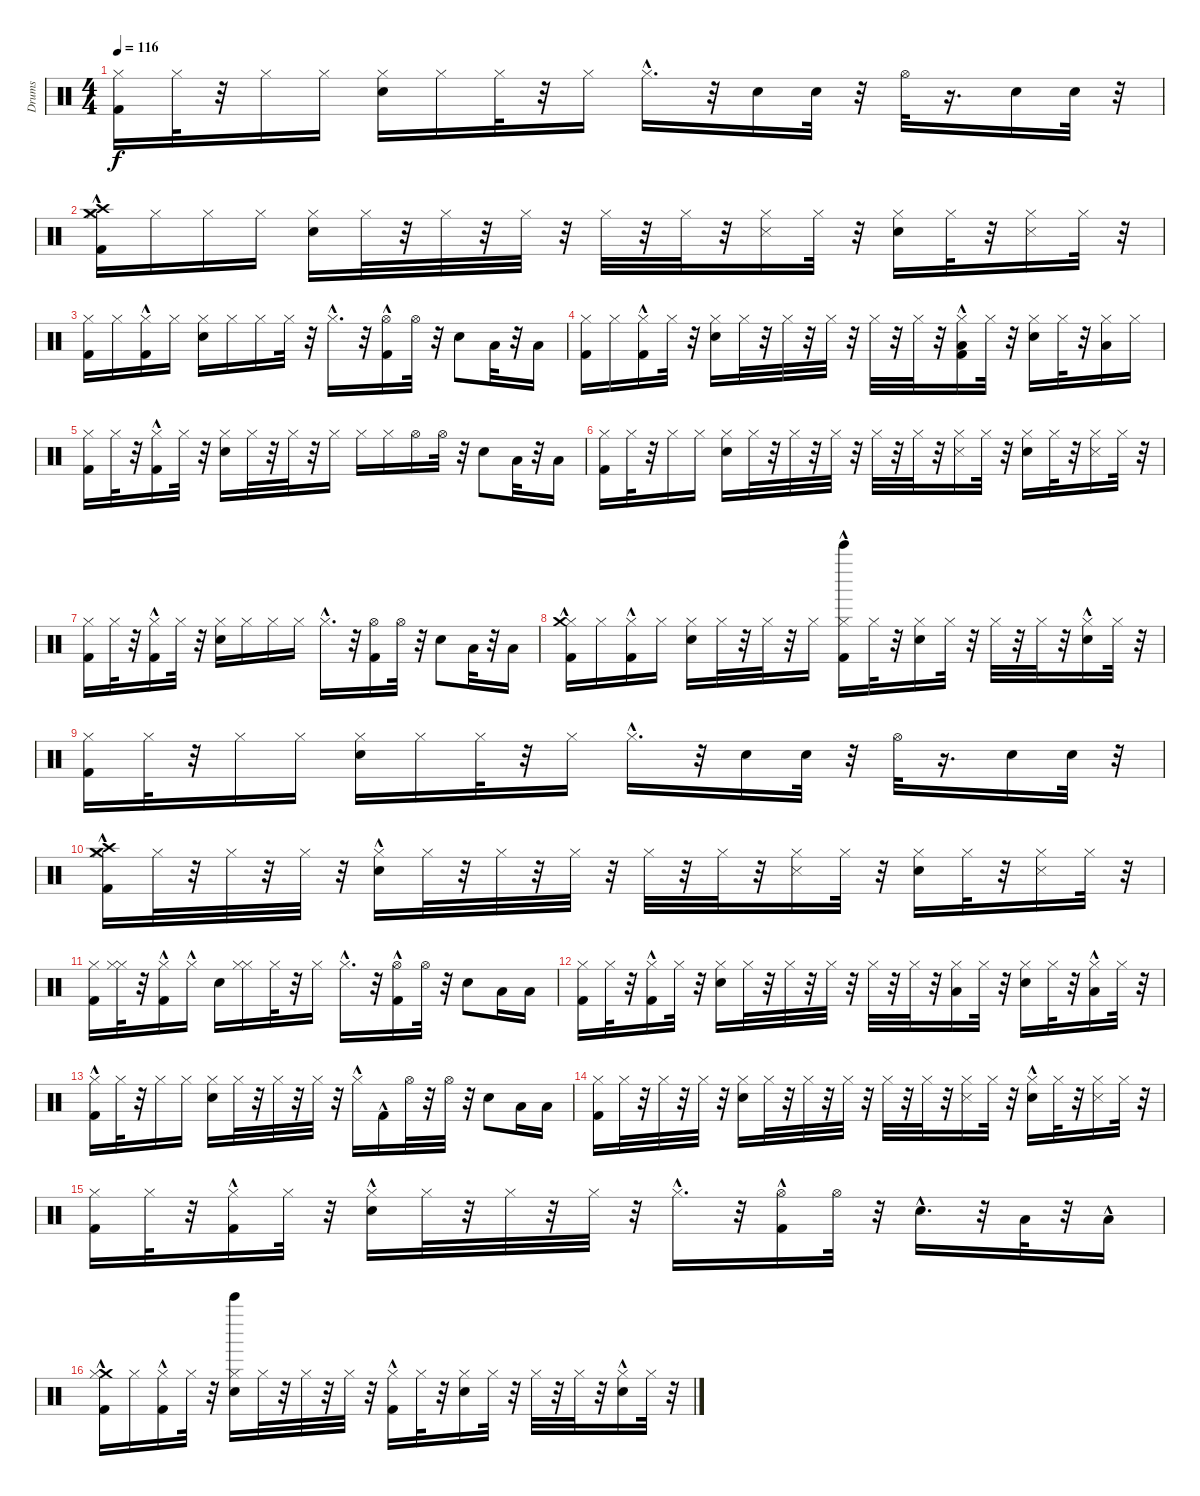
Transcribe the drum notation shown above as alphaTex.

\track ("Drums" "Drums") {instrument percussion}
\staff {score}
\articulation defaults
\ts (4 4)
\tempo 116
\clef neutral
\ks c
("Hi-Hat (closed)" "Kick (hit) 2").16{dy f} "Hi-Hat (closed)".32 r.32 "Hi-Hat (closed)".16 "Hi-Hat (closed)".16 ("Snare (hit) 2" "Hi-Hat (closed)").16 "Hi-Hat (closed)".16 "Hi-Hat (closed)".32 r.32 "Hi-Hat (closed)".16 "Hi-Hat (closed)"{hac}.16{d} r.32 "Snare (hit) 2".16 "Snare (hit) 2".32 r.32 "Hi-Hat (open)".32 r.16{d} "Snare (hit) 2".16 "Snare (hit) 2".32 r.32 |
("Crash high (hit)" "Hi-Hat (closed)" "Kick (hit) 2"{hac} "Crash medium (hit)").16 "Hi-Hat (closed)".16 "Hi-Hat (closed)".16 "Hi-Hat (closed)".16 ("Hi-Hat (closed)" "Snare (hit) 2").16 "Hi-Hat (closed)".32 r.32 "Hi-Hat (closed)".32 r.32 "Hi-Hat (closed)".32 r.32 "Hi-Hat (closed)".32 r.32 "Hi-Hat (closed)".32 r.32 ("Hi-Hat (closed)" "Snare (side stick) 3").16 "Hi-Hat (closed)".32 r.32 ("Snare (hit) 2" "Hi-Hat (closed)").16 "Hi-Hat (closed)".32 r.32 ("Snare (side stick) 3" "Hi-Hat (closed)").16 "Hi-Hat (closed)".32 r.32 |
("Hi-Hat (closed)" "Kick (hit) 2").16 "Hi-Hat (closed)".16 ("Kick (hit) 2"{hac} "Hi-Hat (closed)").16 "Hi-Hat (closed)".16 ("Snare (hit) 2" "Hi-Hat (closed)").16 "Hi-Hat (closed)".16 "Hi-Hat (closed)".16 "Hi-Hat (closed)".32 r.32 "Hi-Hat (closed)"{hac}.16{d} r.32 ("Kick (hit) 2"{hac} "Hi-Hat (open)").16 "Hi-Hat (open)".32 r.32 "Snare (hit) 2".8 "Low Tom (hit)".32 r.32 "Low Tom (hit)".16 |
("Kick (hit) 2" "Hi-Hat (closed)").16 "Hi-Hat (closed)".16 ("Kick (hit) 2"{hac} "Hi-Hat (closed)").16 "Hi-Hat (closed)".32 r.32 ("Snare (hit) 2" "Hi-Hat (closed)").16 "Hi-Hat (closed)".32 r.32 "Hi-Hat (closed)".32 r.32 "Hi-Hat (closed)".32 r.32 "Hi-Hat (closed)".32 r.32 "Hi-Hat (closed)".32 r.32 ("Low Tom (hit)" "Hi-Hat (closed)" "Kick (hit) 2"{hac}).16 "Hi-Hat (closed)".32 r.32 ("Hi-Hat (closed)" "Snare (hit) 2").16 "Hi-Hat (closed)".32 r.32 ("Hi-Hat (closed)" "Low Floor Tom (hit)").16 "Hi-Hat (closed)".16 |
("Kick (hit) 2" "Hi-Hat (closed)").16 "Hi-Hat (closed)".32 r.32 ("Kick (hit) 2"{hac} "Hi-Hat (closed)").16 "Hi-Hat (closed)".32 r.32 ("Snare (hit) 2" "Hi-Hat (closed)").16 "Hi-Hat (closed)".32 r.32 "Hi-Hat (closed)".32 r.32 "Hi-Hat (closed)".16 "Hi-Hat (closed)".16 "Hi-Hat (closed)".16 "Hi-Hat (open)".16 "Hi-Hat (open)".32 r.32 "Snare (hit) 2".8 "Low Tom (hit)".32 r.32 "Low Tom (hit)".16 |
("Kick (hit) 2" "Hi-Hat (closed)").16 "Hi-Hat (closed)".32 r.32 "Hi-Hat (closed)".16 "Hi-Hat (closed)".16 ("Snare (hit) 2" "Hi-Hat (closed)").16 "Hi-Hat (closed)".32 r.32 "Hi-Hat (closed)".32 r.32 "Hi-Hat (closed)".32 r.32 "Hi-Hat (closed)".32 r.32 "Hi-Hat (closed)".32 r.32 ("Hi-Hat (closed)" "Snare (side stick) 3").16 "Hi-Hat (closed)".32 r.32 ("Snare (hit) 2" "Hi-Hat (closed)").16 "Hi-Hat (closed)".32 r.32 ("Hi-Hat (closed)" "Snare (side stick) 3").16 "Hi-Hat (closed)".32 r.32 |
("Kick (hit) 2" "Hi-Hat (closed)").16 "Hi-Hat (closed)".32 r.32 ("Hi-Hat (closed)" "Kick (hit) 2"{hac}).16 "Hi-Hat (closed)".32 r.32 ("Hi-Hat (closed)" "Snare (hit) 2").16 "Hi-Hat (closed)".16 "Hi-Hat (closed)".16 "Hi-Hat (closed)".16 "Hi-Hat (closed)"{hac}.16{d} r.32 ("Hi-Hat (open)" "Kick (hit) 2").16 "Hi-Hat (open)".32 r.32 "Snare (hit) 2".8 "Low Tom (hit)".32 r.32 "Low Tom (hit)".16 |
("Hi-Hat (closed)" "Kick (hit) 2" "Crash medium (hit)"{hac}).16 "Hi-Hat (closed)".16 ("Kick (hit) 2"{hac} "Hi-Hat (closed)").16 "Hi-Hat (closed)".16 ("Snare (hit) 2" "Hi-Hat (closed)").16 "Hi-Hat (closed)".32 r.32 "Hi-Hat (closed)".32 r.32 "Hi-Hat (closed)".16 ("Bell Tree (hit)" "Hi-Hat (closed)" "Kick (hit) 2"{hac}).16 "Hi-Hat (closed)".32 r.32 ("Snare (hit) 2" "Hi-Hat (closed)").16 "Hi-Hat (closed)".32 r.32 "Hi-Hat (closed)".32 r.32 "Hi-Hat (closed)".32 r.32 ("Snare (hit) 2"{hac} "Hi-Hat (closed)").16 "Hi-Hat (closed)".32 r.32 |
("Hi-Hat (closed)" "Kick (hit) 2").16 "Hi-Hat (closed)".32 r.32 "Hi-Hat (closed)".16 "Hi-Hat (closed)".16 ("Hi-Hat (closed)" "Snare (hit) 2").16 "Hi-Hat (closed)".16 "Hi-Hat (closed)".32 r.32 "Hi-Hat (closed)".16 "Hi-Hat (closed)"{hac}.16{d} r.32 "Snare (hit) 2".16 "Snare (hit) 2".32 r.32 "Hi-Hat (open)".32 r.16{d} "Snare (hit) 2".16 "Snare (hit) 2".32 r.32 |
("Kick (hit) 2"{hac} "Crash medium (hit)"{hac} "Hi-Hat (closed)" "Crash high (hit)"{hac}).16 "Hi-Hat (closed)".32 r.32 "Hi-Hat (closed)".32 r.32 "Hi-Hat (closed)".32 r.32 ("Snare (hit) 2"{hac} "Hi-Hat (closed)").16 "Hi-Hat (closed)".32 r.32 "Hi-Hat (closed)".32 r.32 "Hi-Hat (closed)".32 r.32 "Hi-Hat (closed)".32 r.32 "Hi-Hat (closed)".32 r.32 ("Hi-Hat (closed)" "Snare (side stick) 3").16 "Hi-Hat (closed)".32 r.32 ("Snare (hit) 2" "Hi-Hat (closed)").16 "Hi-Hat (closed)".32 r.32 ("Hi-Hat (closed)" "Snare (side stick) 3").16 "Hi-Hat (closed)".32 r.32 |
("Hi-Hat (closed)" "Kick (hit) 2").16 ("Hi-Hat (closed)" "Hi-Hat (closed)").32 r.32 ("Kick (hit) 2"{hac} "Hi-Hat (closed)").16 "Hi-Hat (closed)"{hac}.16 "Snare (hit) 2".16 ("Hi-Hat (closed)" "Hi-Hat (closed)").16 "Hi-Hat (closed)".32 r.32 "Hi-Hat (closed)".16 "Hi-Hat (closed)"{hac}.16{d} r.32 ("Kick (hit) 2"{hac} "Hi-Hat (open)").16 "Hi-Hat (open)".32 r.32 "Snare (hit) 2".8 "Low Tom (hit)".16 "Low Tom (hit)".16 |
("Hi-Hat (closed)" "Kick (hit) 2").16 "Hi-Hat (closed)".32 r.32 ("Hi-Hat (closed)" "Kick (hit) 2"{hac}).16 "Hi-Hat (closed)".32 r.32 ("Snare (hit) 2" "Hi-Hat (closed)").16 "Hi-Hat (closed)".32 r.32 "Hi-Hat (closed)".32 r.32 "Hi-Hat (closed)".32 r.32 "Hi-Hat (closed)".32 r.32 "Hi-Hat (closed)".32 r.32 ("Hi-Hat (closed)" "Low Tom (hit)").16 "Hi-Hat (closed)".32 r.32 ("Hi-Hat (closed)" "Snare (hit) 2").16 "Hi-Hat (closed)".32 r.32 ("Low Tom (hit)"{hac} "Hi-Hat (closed)").16 "Hi-Hat (closed)".32 r.32 |
("Hi-Hat (closed)" "Kick (hit) 2"{hac}).16 "Hi-Hat (closed)".32 r.32 "Hi-Hat (closed)".16 "Hi-Hat (closed)".16 ("Snare (hit) 2" "Hi-Hat (closed)").16 "Hi-Hat (closed)".32 r.32 "Hi-Hat (closed)".32 r.32 "Hi-Hat (closed)".32 r.32 "Hi-Hat (closed)"{hac}.16 "Kick (hit) 2"{hac}.16 "Hi-Hat (open)".32 r.32 "Hi-Hat (open)".32 r.32 "Snare (hit) 2".8 "Low Tom (hit)".16 "Low Tom (hit)".16 |
("Kick (hit) 2" "Hi-Hat (closed)").16 "Hi-Hat (closed)".32 r.32 "Hi-Hat (closed)".32 r.32 "Hi-Hat (closed)".32 r.32 ("Snare (hit) 2" "Hi-Hat (closed)").16 "Hi-Hat (closed)".32 r.32 "Hi-Hat (closed)".32 r.32 "Hi-Hat (closed)".32 r.32 "Hi-Hat (closed)".32 r.32 "Hi-Hat (closed)".32 r.32 ("Snare (side stick) 3" "Hi-Hat (closed)").16 "Hi-Hat (closed)".32 r.32 ("Snare (hit) 2"{hac} "Hi-Hat (closed)").16 "Hi-Hat (closed)".32 r.32 ("Hi-Hat (closed)" "Snare (side stick) 3").16 "Hi-Hat (closed)".32 r.32 |
("Hi-Hat (closed)" "Kick (hit) 2").16 "Hi-Hat (closed)".32 r.32 ("Hi-Hat (closed)" "Kick (hit) 2"{hac}).16 "Hi-Hat (closed)".32 r.32 ("Snare (hit) 2"{hac} "Hi-Hat (closed)").16 "Hi-Hat (closed)".32 r.32 "Hi-Hat (closed)".32 r.32 "Hi-Hat (closed)".32 r.32 "Hi-Hat (closed)"{hac}.16{d} r.32 ("Hi-Hat (open)" "Kick (hit) 2"{hac}).16 "Hi-Hat (open)".32 r.32 "Snare (hit) 2"{hac}.16{d} r.32 "Low Tom (hit)".32 r.32 "Low Tom (hit)"{hac}.16 |
("Crash medium (hit)"{hac} "Kick (hit) 2"{hac} "Hi-Hat (closed)").16 "Hi-Hat (closed)".16 ("Kick (hit) 2"{hac} "Hi-Hat (closed)").16 "Hi-Hat (closed)".32 r.32 ("Snare (hit) 2" "Bell Tree (hit)" "Hi-Hat (closed)").16 "Hi-Hat (closed)".32 r.32 "Hi-Hat (closed)".32 r.32 "Hi-Hat (closed)".32 r.32 ("Kick (hit) 2"{hac} "Hi-Hat (closed)").16 "Hi-Hat (closed)".32 r.32 ("Snare (hit) 2" "Hi-Hat (closed)").16 "Hi-Hat (closed)".32 r.32 "Hi-Hat (closed)".32 r.32 "Hi-Hat (closed)".32 r.32 ("Hi-Hat (closed)" "Snare (hit) 2"{hac}).16 "Hi-Hat (closed)".32 r.32
